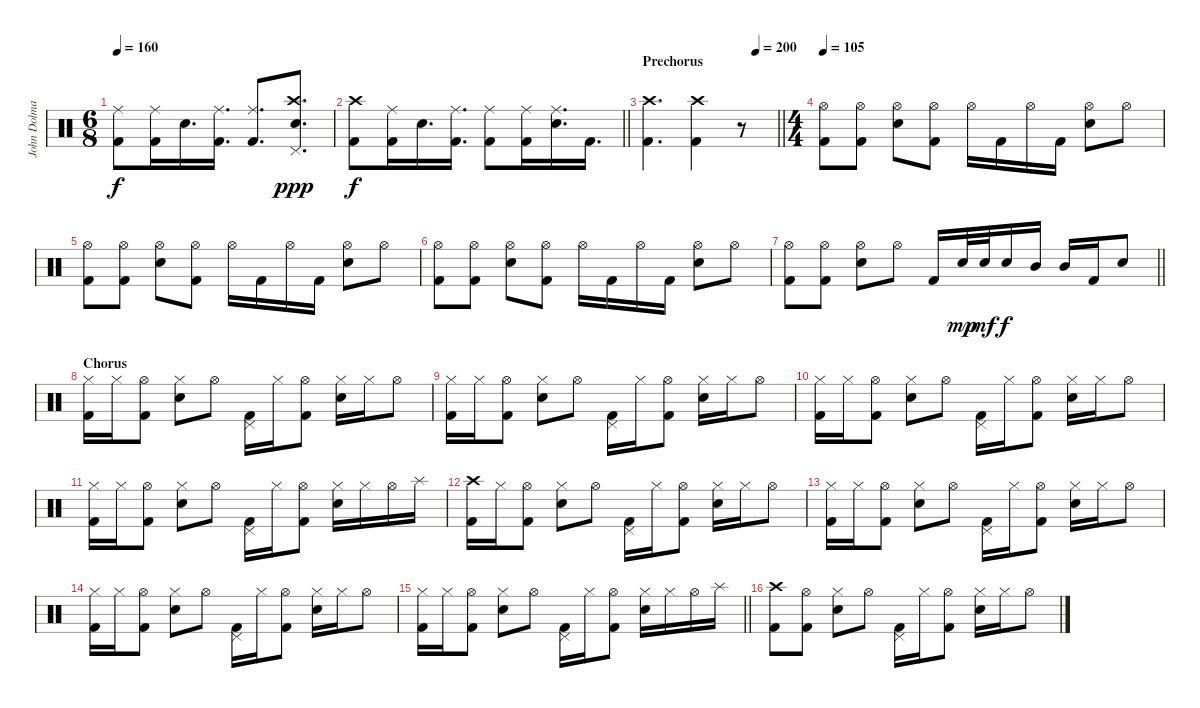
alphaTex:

\track ("John Dolmayan" "John Dolma") {instrument percussion}
\staff {score}
\articulation defaults
\ts (6 8)
\tempo 160
\clef neutral
\ks c
("Ride (middle)" "Kick (hit) 2").8{dy f} ("Ride (middle)" "Kick (hit) 2").16 "Electric Snare (hit)".16{d} ("Ride (middle)" "Kick (hit) 2").16{d} ("Ride (middle)" "Kick (hit) 2").8{d} ("Crash high (hit)" "Pedal Hi-Hat (hit)" "Electric Snare (hit)").8{d dy ppp} |
\barLineRight lightlight
("Crash high (hit)" "Kick (hit) 2").8{dy f} ("Ride (middle)" "Kick (hit) 2").16 "Electric Snare (hit)".16{d} ("Ride (middle)" "Kick (hit) 2").16{d} ("Ride (middle)" "Kick (hit) 2").8 ("Ride (middle)" "Kick (hit) 2").16 ("Ride (middle)" "Electric Snare (hit)").16{d} "Kick (hit) 2".16{d} |
\section ("" "Prechorus")
\tempo (200 0.8333333333333334)
\barLineRight lightlight
("Crash high (hit)" "Kick (hit) 2").4{d} ("Crash high (hit)" "Kick (hit) 2").4 r.8 |
\ts (4 4)
\tempo 105
("Hi-Hat (open)" "Kick (hit) 2").8 ("Hi-Hat (open)" "Kick (hit) 2").8 ("Hi-Hat (open)" "Electric Snare (hit)").8 ("Hi-Hat (open)" "Kick (hit) 2").8 "Hi-Hat (open)".16 "Kick (hit) 2".16 "Hi-Hat (open)".16 "Kick (hit) 2".16 ("Hi-Hat (open)" "Electric Snare (hit)").8 "Hi-Hat (open)".8 |
("Hi-Hat (open)" "Kick (hit) 2").8 ("Hi-Hat (open)" "Kick (hit) 2").8 ("Hi-Hat (open)" "Electric Snare (hit)").8 ("Hi-Hat (open)" "Kick (hit) 2").8 "Hi-Hat (open)".16 "Kick (hit) 2".16 "Hi-Hat (open)".16 "Kick (hit) 2".16 ("Hi-Hat (open)" "Electric Snare (hit)").8 "Hi-Hat (open)".8 |
("Hi-Hat (open)" "Kick (hit) 2").8 ("Hi-Hat (open)" "Kick (hit) 2").8 ("Hi-Hat (open)" "Electric Snare (hit)").8 ("Hi-Hat (open)" "Kick (hit) 2").8 "Hi-Hat (open)".16 "Kick (hit) 2".16 "Hi-Hat (open)".16 "Kick (hit) 2".16 ("Hi-Hat (open)" "Electric Snare (hit)").8 "Hi-Hat (open)".8 |
\barLineRight lightlight
("Hi-Hat (open)" "Kick (hit) 2").8 ("Hi-Hat (open)" "Kick (hit) 2").8 ("Hi-Hat (open)" "Electric Snare (hit)").8 "Hi-Hat (open)".8 "Kick (hit) 2".16 "Electric Snare (hit)".32{dy mp} "Electric Snare (hit)".32{dy mf} "Electric Snare (hit)".16{dy f} "Mid Tom (hit)".16 "Mid Tom (hit)".16 "Kick (hit) 2".16 "Electric Snare (hit)".8 |
\section ("" "Chorus")
("Hi-Hat (closed)" "Kick (hit) 2").16 "Hi-Hat (closed)".16 ("Hi-Hat (open)" "Kick (hit) 2").8 ("Hi-Hat (closed)" "Electric Snare (hit)").8 "Hi-Hat (open)".8 ("Pedal Hi-Hat (hit)" "Kick (hit) 2").16 "Hi-Hat (closed)".16 ("Hi-Hat (open)" "Kick (hit) 2").8 ("Hi-Hat (closed)" "Electric Snare (hit)").16 "Hi-Hat (closed)".16 "Hi-Hat (open)".8 |
("Hi-Hat (closed)" "Kick (hit) 2").16 "Hi-Hat (closed)".16 ("Hi-Hat (open)" "Kick (hit) 2").8 ("Hi-Hat (closed)" "Electric Snare (hit)").8 "Hi-Hat (open)".8 ("Pedal Hi-Hat (hit)" "Kick (hit) 2").16 "Hi-Hat (closed)".16 ("Hi-Hat (open)" "Kick (hit) 2").8 ("Hi-Hat (closed)" "Electric Snare (hit)").16 "Hi-Hat (closed)".16 "Hi-Hat (open)".8 |
("Hi-Hat (closed)" "Kick (hit) 2").16 "Hi-Hat (closed)".16 ("Hi-Hat (open)" "Kick (hit) 2").8 ("Hi-Hat (closed)" "Electric Snare (hit)").8 "Hi-Hat (open)".8 ("Pedal Hi-Hat (hit)" "Kick (hit) 2").16 "Hi-Hat (closed)".16 ("Hi-Hat (open)" "Kick (hit) 2").8 ("Hi-Hat (closed)" "Electric Snare (hit)").16 "Hi-Hat (closed)".16 "Hi-Hat (open)".8 |
("Hi-Hat (closed)" "Kick (hit) 2").16 "Hi-Hat (closed)".16 ("Hi-Hat (open)" "Kick (hit) 2").8 ("Hi-Hat (closed)" "Electric Snare (hit)").8 "Hi-Hat (open)".8 ("Pedal Hi-Hat (hit)" "Kick (hit) 2").16 "Hi-Hat (closed)".16 ("Hi-Hat (open)" "Kick (hit) 2").8 ("Hi-Hat (closed)" "Electric Snare (hit)").16 "Hi-Hat (closed)".16 "Hi-Hat (open)".16 "Splash (hit)".16 |
("Crash high (hit)" "Kick (hit) 2").16 "Hi-Hat (closed)".16 ("Hi-Hat (open)" "Kick (hit) 2").8 ("Hi-Hat (closed)" "Electric Snare (hit)").8 "Hi-Hat (open)".8 ("Pedal Hi-Hat (hit)" "Kick (hit) 2").16 "Hi-Hat (closed)".16 ("Hi-Hat (open)" "Kick (hit) 2").8 ("Hi-Hat (closed)" "Electric Snare (hit)").16 "Hi-Hat (closed)".16 "Hi-Hat (open)".8 |
("Hi-Hat (closed)" "Kick (hit) 2").16 "Hi-Hat (closed)".16 ("Hi-Hat (open)" "Kick (hit) 2").8 ("Hi-Hat (closed)" "Electric Snare (hit)").8 "Hi-Hat (open)".8 ("Pedal Hi-Hat (hit)" "Kick (hit) 2").16 "Hi-Hat (closed)".16 ("Hi-Hat (open)" "Kick (hit) 2").8 ("Hi-Hat (closed)" "Electric Snare (hit)").16 "Hi-Hat (closed)".16 "Hi-Hat (open)".8 |
("Hi-Hat (closed)" "Kick (hit) 2").16 "Hi-Hat (closed)".16 ("Hi-Hat (open)" "Kick (hit) 2").8 ("Hi-Hat (closed)" "Electric Snare (hit)").8 "Hi-Hat (open)".8 ("Pedal Hi-Hat (hit)" "Kick (hit) 2").16 "Hi-Hat (closed)".16 ("Hi-Hat (open)" "Kick (hit) 2").8 ("Hi-Hat (closed)" "Electric Snare (hit)").16 "Hi-Hat (closed)".16 "Hi-Hat (open)".8 |
\barLineRight lightlight
("Hi-Hat (closed)" "Kick (hit) 2").16 "Hi-Hat (closed)".16 ("Hi-Hat (open)" "Kick (hit) 2").8 ("Hi-Hat (closed)" "Electric Snare (hit)").8 "Hi-Hat (open)".8 ("Pedal Hi-Hat (hit)" "Kick (hit) 2").16 "Hi-Hat (closed)".16 ("Hi-Hat (open)" "Kick (hit) 2").8 ("Hi-Hat (closed)" "Electric Snare (hit)").16 "Hi-Hat (closed)".16 "Hi-Hat (open)".16 "Splash (hit)".16 |
("Crash high (hit)" "Kick (hit) 2").8 ("Hi-Hat (open)" "Kick (hit) 2").8 ("Hi-Hat (closed)" "Electric Snare (hit)").8 "Hi-Hat (open)".8 ("Pedal Hi-Hat (hit)" "Kick (hit) 2").16 "Hi-Hat (closed)".16 ("Hi-Hat (open)" "Kick (hit) 2").8 ("Hi-Hat (closed)" "Electric Snare (hit)").16 "Hi-Hat (closed)".16 "Hi-Hat (open)".8
